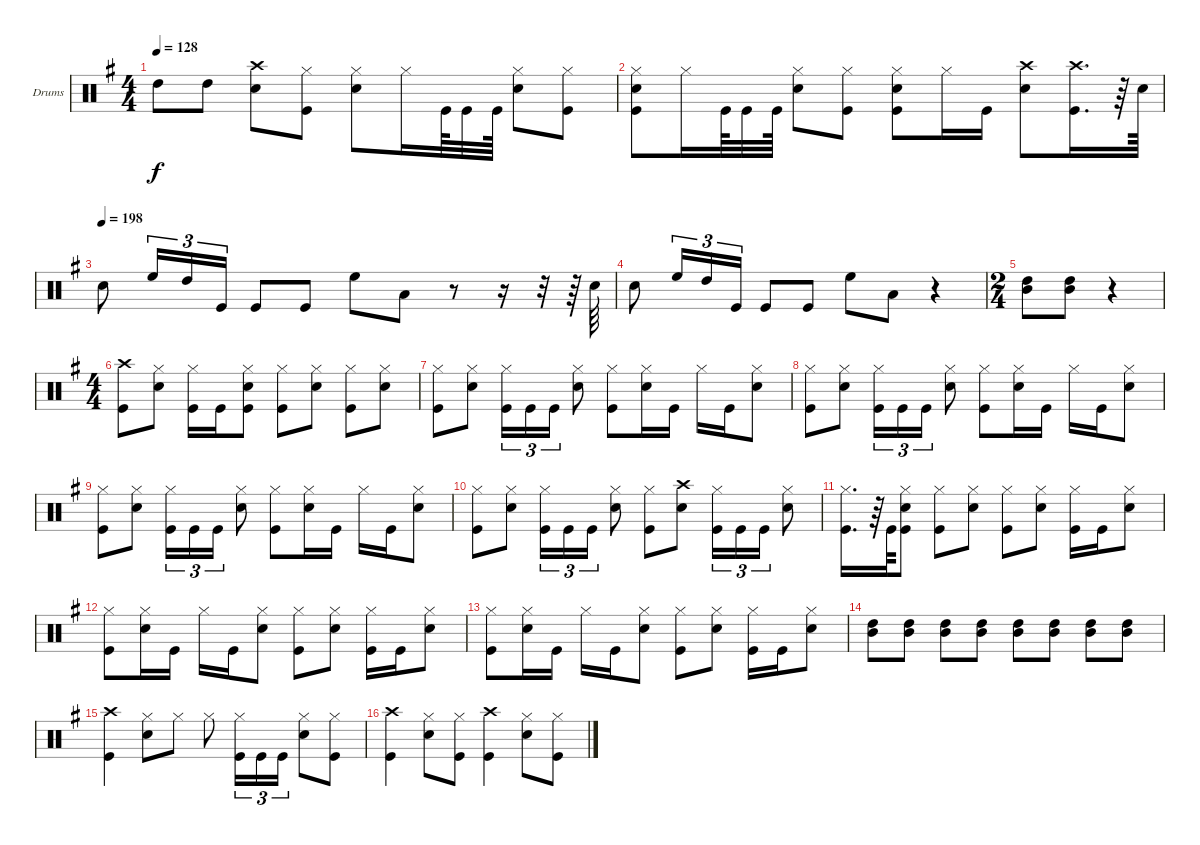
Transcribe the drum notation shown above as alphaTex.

\defaultSystemsLayout 4
\bracketExtendMode groupsimilarinstruments
\firstSystemTrackNameOrientation horizontal
\otherSystemsTrackNameOrientation horizontal
\track ("Drumkit" "Drums") {instrument percussion}
\staff {score}
\articulation defaults
\ts (4 4)
\tempo 128
\clef neutral
\ks g "High Tom (hit)".8{dy f} "High Tom (hit)".8
("Crash high (hit)" "Snare (hit) 2").8 ("Kick (hit)" "Hi-Hat (closed)").8 ("Snare (hit) 2" "Hi-Hat (closed)").8 "Hi-Hat (closed)".16 "Kick (hit)".64 "Kick (hit)".32 "Kick (hit)".64 ("Snare (hit) 2" "Hi-Hat (closed)").8 ("Kick (hit)" "Hi-Hat (closed)").8 |
("Hi-Hat (closed)" "Snare (hit) 2" "Kick (hit)").8 "Hi-Hat (closed)".16 "Kick (hit)".64 "Kick (hit)".32 "Kick (hit)".64 ("Snare (hit) 2" "Hi-Hat (closed)").8 ("Hi-Hat (closed)" "Kick (hit)").8 ("Snare (hit) 2" "Hi-Hat (closed)" "Kick (hit)").8 "Hi-Hat (closed)".16 "Kick (hit)".16 ("Crash high (hit)" "Snare (hit) 2").8 ("Crash high (hit)" "Kick (hit)").16{d} r.64 "Snare (hit) 2".64 |
\tempo (198)
"Snare (hit) 2".8 "High Floor Tom (hit)".16{tu (3 2)} "High Tom (hit)".16{tu (3 2)} "Kick (hit)".16{tu (3 2)} "Kick (hit)".8 "Kick (hit)".8 "High Floor Tom (hit)".8 "Low Tom (hit)".8 r.8 r.16 r.32 r.64 "Snare (hit) 2".64 |
"Snare (hit) 2".8 "High Floor Tom (hit)".16{tu (3 2)} "High Tom (hit)".16{tu (3 2)} "Kick (hit)".16{tu (3 2)} "Kick (hit)".8 "Kick (hit)".8 "High Floor Tom (hit)".8 "Low Tom (hit)".8 r.4 |
\ts (2 4)
("High Tom (hit)" "Mid Tom (hit)").8 ("High Tom (hit)" "Mid Tom (hit)").8 r.4 |
\ts (4 4)
("Kick (hit)" "Crash high (hit)").8 ("Hi-Hat (closed)" "Snare (hit) 2").8 ("Kick (hit)" "Hi-Hat (closed)").16 "Kick (hit)".16 ("Kick (hit)" "Snare (hit) 2" "Hi-Hat (closed)").8 ("Kick (hit)" "Hi-Hat (closed)").8 ("Snare (hit) 2" "Hi-Hat (closed)").8 ("Kick (hit)" "Hi-Hat (closed)").8 ("Snare (hit) 2" "Hi-Hat (closed)").8 |
("Kick (hit)" "Hi-Hat (closed)").8 ("Snare (hit) 2" "Hi-Hat (closed)").8 ("Kick (hit)" "Hi-Hat (closed)").16{tu (3 2)} "Kick (hit)".16{tu (3 2)} "Kick (hit)".16{tu (3 2)} ("Snare (hit) 2" "Hi-Hat (closed)").8 ("Kick (hit)" "Hi-Hat (closed)").8 ("Snare (hit) 2" "Hi-Hat (closed)").16 "Kick (hit)".16 "Hi-Hat (closed)".16 "Kick (hit)".16 ("Snare (hit) 2" "Hi-Hat (closed)").8 |
("Kick (hit)" "Hi-Hat (closed)").8 ("Snare (hit) 2" "Hi-Hat (closed)").8 ("Kick (hit)" "Hi-Hat (closed)").16{tu (3 2)} "Kick (hit)".16{tu (3 2)} "Kick (hit)".16{tu (3 2)} ("Snare (hit) 2" "Hi-Hat (closed)").8 ("Kick (hit)" "Hi-Hat (closed)").8 ("Snare (hit) 2" "Hi-Hat (closed)").16 "Kick (hit)".16 "Hi-Hat (closed)".16 "Kick (hit)".16 ("Snare (hit) 2" "Hi-Hat (closed)").8 |
("Kick (hit)" "Hi-Hat (closed)").8 ("Snare (hit) 2" "Hi-Hat (closed)").8 ("Kick (hit)" "Hi-Hat (closed)").16{tu (3 2)} "Kick (hit)".16{tu (3 2)} "Kick (hit)".16{tu (3 2)} ("Snare (hit) 2" "Hi-Hat (closed)").8 ("Kick (hit)" "Hi-Hat (closed)").8 ("Snare (hit) 2" "Hi-Hat (closed)").16 "Kick (hit)".16 "Hi-Hat (closed)".16 "Kick (hit)".16 ("Snare (hit) 2" "Hi-Hat (closed)").8 |
("Kick (hit)" "Hi-Hat (closed)").8 ("Snare (hit) 2" "Hi-Hat (closed)").8 ("Kick (hit)" "Hi-Hat (closed)").16{tu (3 2)} "Kick (hit)".16{tu (3 2)} "Kick (hit)".16{tu (3 2)} ("Snare (hit) 2" "Hi-Hat (closed)").8 ("Kick (hit)" "Hi-Hat (closed)").8 ("Crash high (hit)" "Snare (hit) 2").8 ("Kick (hit)" "Hi-Hat (closed)").16{tu (3 2)} "Kick (hit)".16{tu (3 2)} "Kick (hit)".16{tu (3 2)} ("Snare (hit) 2" "Hi-Hat (closed)").8 |
("Kick (hit)" "Hi-Hat (closed)").16{d} r.64 "Kick (hit)".64 ("Kick (hit)" "Snare (hit) 2" "Hi-Hat (closed)").8 ("Kick (hit)" "Hi-Hat (closed)").8 ("Snare (hit) 2" "Hi-Hat (closed)").8 ("Kick (hit)" "Hi-Hat (closed)").8 ("Snare (hit) 2" "Hi-Hat (closed)").8 ("Kick (hit)" "Hi-Hat (closed)").16 "Kick (hit)".16 ("Snare (hit) 2" "Hi-Hat (closed)").8 |
("Hi-Hat (closed)" "Kick (hit)").8 ("Snare (hit) 2" "Hi-Hat (closed)").16 "Kick (hit)".16 "Hi-Hat (closed)".16 "Kick (hit)".16 ("Snare (hit) 2" "Hi-Hat (closed)").8 ("Hi-Hat (closed)" "Kick (hit)").8 ("Snare (hit) 2" "Hi-Hat (closed)").8 ("Hi-Hat (closed)" "Kick (hit)").16 "Kick (hit)".16 ("Snare (hit) 2" "Hi-Hat (closed)").8 |
("Hi-Hat (closed)" "Kick (hit)").8 ("Snare (hit) 2" "Hi-Hat (closed)").16 "Kick (hit)".16 "Hi-Hat (closed)".16 "Kick (hit)".16 ("Snare (hit) 2" "Hi-Hat (closed)").8 ("Hi-Hat (closed)" "Kick (hit)").8 ("Snare (hit) 2" "Hi-Hat (closed)").8 ("Hi-Hat (closed)" "Kick (hit)").16 "Kick (hit)".16 ("Snare (hit) 2" "Hi-Hat (closed)").8 |
("High Tom (hit)" "Mid Tom (hit)").8 ("High Tom (hit)" "Mid Tom (hit)").8 ("High Tom (hit)" "Mid Tom (hit)").8 ("High Tom (hit)" "Mid Tom (hit)").8 ("High Tom (hit)" "Mid Tom (hit)").8 ("High Tom (hit)" "Mid Tom (hit)").8 ("High Tom (hit)" "Mid Tom (hit)").8 ("High Tom (hit)" "Mid Tom (hit)").8 |
("Kick (hit)" "Crash high (hit)").4 ("Snare (hit) 2" "Hi-Hat (closed)").8 "Hi-Hat (closed)".8 "Hi-Hat (closed)".8 ("Kick (hit)" "Hi-Hat (closed)").16{tu (3 2)} "Kick (hit)".16{tu (3 2)} "Kick (hit)".16{tu (3 2)} ("Snare (hit) 2" "Hi-Hat (closed)").8 ("Kick (hit)" "Hi-Hat (closed)").8 |
("Kick (hit)" "Crash high (hit)").4 ("Hi-Hat (closed)" "Snare (hit) 2").8 ("Kick (hit)" "Hi-Hat (closed)").8 ("Crash high (hit)" "Kick (hit)").4 ("Hi-Hat (closed)" "Snare (hit) 2").8 ("Kick (hit)" "Hi-Hat (closed)").8
